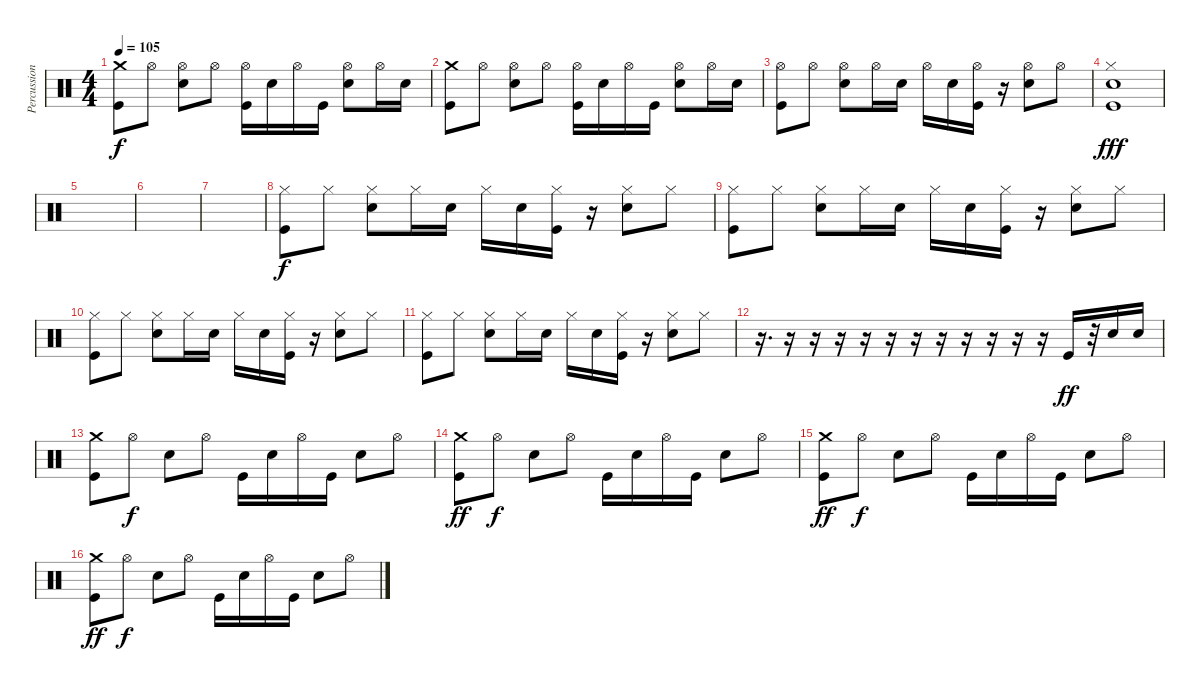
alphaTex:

\track ("Percussion" "Percussion") {instrument percussion}
\staff {score}
\articulation defaults
\ts (4 4)
\tempo 105
\clef neutral
\ks c
("Crash medium (hit)" "Kick (hit)").8{dy f} "Hi-Hat (open)".8 ("Hi-Hat (open)" "Electric Snare (hit)").8 "Hi-Hat (open)".8 ("Hi-Hat (open)" "Kick (hit)").16 "Electric Snare (hit)".16 "Hi-Hat (open)".16 "Kick (hit)".16 ("Hi-Hat (open)" "Electric Snare (hit)").8 "Hi-Hat (open)".16 "Electric Snare (hit)".16 |
("Crash medium (hit)" "Kick (hit)").8 "Hi-Hat (open)".8 ("Hi-Hat (open)" "Electric Snare (hit)").8 "Hi-Hat (open)".8 ("Hi-Hat (open)" "Kick (hit)").16 "Electric Snare (hit)".16 "Hi-Hat (open)".16 "Kick (hit)".16 ("Hi-Hat (open)" "Electric Snare (hit)").8 "Hi-Hat (open)".16 "Electric Snare (hit)".16 |
("Hi-Hat (open)" "Kick (hit)").8 "Hi-Hat (open)".8 ("Hi-Hat (open)" "Electric Snare (hit)").8 "Hi-Hat (open)".16 "Electric Snare (hit)".16 "Hi-Hat (open)".16 "Electric Snare (hit)".16 ("Hi-Hat (open)" "Kick (hit)").16 r.16 ("Hi-Hat (open)" "Electric Snare (hit)").8 "Hi-Hat (open)".8 |
("Hi-Hat (closed)" "Electric Snare (hit)" "Kick (hit)").1{dy fff} |
|
|
|
("Hi-Hat (closed)" "Kick (hit)").8{dy f} "Hi-Hat (closed)".8 ("Hi-Hat (closed)" "Snare (hit) 2").8 "Hi-Hat (closed)".16 "Snare (hit) 2".16 "Hi-Hat (closed)".16 "Snare (hit) 2".16 ("Hi-Hat (closed)" "Kick (hit)").16 r.16 ("Hi-Hat (closed)" "Snare (hit) 2").8 "Hi-Hat (closed)".8 |
("Hi-Hat (closed)" "Kick (hit)").8 "Hi-Hat (closed)".8 ("Hi-Hat (closed)" "Snare (hit) 2").8 "Hi-Hat (closed)".16 "Snare (hit) 2".16 "Hi-Hat (closed)".16 "Snare (hit) 2".16 ("Hi-Hat (closed)" "Kick (hit)").16 r.16 ("Hi-Hat (closed)" "Snare (hit) 2").8 "Hi-Hat (closed)".8 |
("Hi-Hat (closed)" "Kick (hit)").8 "Hi-Hat (closed)".8 ("Hi-Hat (closed)" "Snare (hit) 2").8 "Hi-Hat (closed)".16 "Snare (hit) 2".16 "Hi-Hat (closed)".16 "Snare (hit) 2".16 ("Hi-Hat (closed)" "Kick (hit)").16 r.16 ("Hi-Hat (closed)" "Snare (hit) 2").8 "Hi-Hat (closed)".8 |
("Hi-Hat (closed)" "Kick (hit)").8 "Hi-Hat (closed)".8 ("Hi-Hat (closed)" "Snare (hit) 2").8 "Hi-Hat (closed)".16 "Snare (hit) 2".16 "Hi-Hat (closed)".16 "Snare (hit) 2".16 ("Hi-Hat (closed)" "Kick (hit)").16 r.16 ("Hi-Hat (closed)" "Snare (hit) 2").8 "Hi-Hat (closed)".8 |
r.16{d} r.16 r.16 r.16 r.16 r.16 r.16 r.16 r.16 r.16 r.16 r.16 "Kick (hit)".16{dy ff} r.32 "Electric Snare (hit)".16 "Electric Snare (hit)".16 |
("Crash medium (hit)" "Kick (hit)").8 "Hi-Hat (open)".8{dy f} "Electric Snare (hit)".8 "Hi-Hat (open)".8 "Kick (hit)".16 "Electric Snare (hit)".16 "Hi-Hat (open)".16 "Kick (hit)".16 "Electric Snare (hit)".8 "Hi-Hat (open)".8 |
("Crash medium (hit)" "Kick (hit)").8{dy ff} "Hi-Hat (open)".8{dy f} "Electric Snare (hit)".8 "Hi-Hat (open)".8 "Kick (hit)".16 "Electric Snare (hit)".16 "Hi-Hat (open)".16 "Kick (hit)".16 "Electric Snare (hit)".8 "Hi-Hat (open)".8 |
("Crash medium (hit)" "Kick (hit)").8{dy ff} "Hi-Hat (open)".8{dy f} "Electric Snare (hit)".8 "Hi-Hat (open)".8 "Kick (hit)".16 "Electric Snare (hit)".16 "Hi-Hat (open)".16 "Kick (hit)".16 "Electric Snare (hit)".8 "Hi-Hat (open)".8 |
("Crash medium (hit)" "Kick (hit)").8{dy ff} "Hi-Hat (open)".8{dy f} "Electric Snare (hit)".8 "Hi-Hat (open)".8 "Kick (hit)".16 "Electric Snare (hit)".16 "Hi-Hat (open)".16 "Kick (hit)".16 "Electric Snare (hit)".8 "Hi-Hat (open)".8
